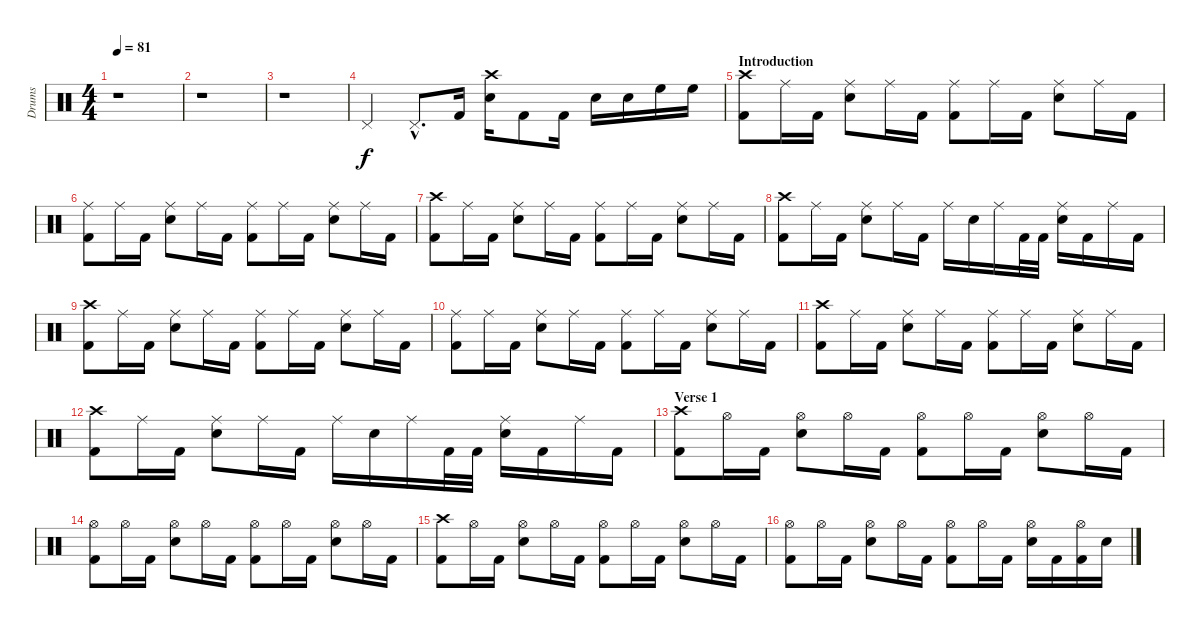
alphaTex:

\track ("Drums" "Drums") {instrument percussion}
\staff {score}
\articulation defaults
\ts (4 4)
\tempo 81
\clef neutral
\ks c
r.1{dy f} |
r.1 |
r.1 |
"Pedal Hi-Hat (hit)".4 "Pedal Hi-Hat (hit)"{hac}.8{d} "Kick (hit) 2".16 ("Crash high (hit)" "Snare (hit) 2").16 "Kick (hit) 2".8 "Kick (hit) 2".16 "Snare (hit) 2".16 "Snare (hit) 2".16 "High Floor Tom (hit)".16 "High Floor Tom (hit)".16 |
\section ("" "Introduction")
("Crash high (hit)" "Kick (hit) 2").8 "Ride (middle)".16 "Kick (hit) 2".16 ("Ride (middle)" "Snare (hit) 2").8 "Ride (middle)".16 "Kick (hit) 2".16 ("Ride (middle)" "Kick (hit) 2").8 "Ride (middle)".16 "Kick (hit) 2".16 ("Ride (middle)" "Snare (hit) 2").8 "Ride (middle)".16 "Kick (hit) 2".16 |
("Ride (middle)" "Kick (hit) 2").8 "Ride (middle)".16 "Kick (hit) 2".16 ("Ride (middle)" "Snare (hit) 2").8 "Ride (middle)".16 "Kick (hit) 2".16 ("Ride (middle)" "Kick (hit) 2").8 "Ride (middle)".16 "Kick (hit) 2".16 ("Ride (middle)" "Snare (hit) 2").8 "Ride (middle)".16 "Kick (hit) 2".16 |
("Crash high (hit)" "Kick (hit) 2").8 "Ride (middle)".16 "Kick (hit) 2".16 ("Ride (middle)" "Snare (hit) 2").8 "Ride (middle)".16 "Kick (hit) 2".16 ("Ride (middle)" "Kick (hit) 2").8 "Ride (middle)".16 "Kick (hit) 2".16 ("Ride (middle)" "Snare (hit) 2").8 "Ride (middle)".16 "Kick (hit) 2".16 |
("Crash high (hit)" "Kick (hit) 2").8 "Ride (middle)".16 "Kick (hit) 2".16 ("Ride (middle)" "Snare (hit) 2").8 "Ride (middle)".16 "Kick (hit) 2".16 "Ride (middle)".16 "Snare (hit) 2".16 "Ride (middle)".16 "Kick (hit) 2".32 "Kick (hit) 2".32 ("Ride (middle)" "Snare (hit) 2").16 "Kick (hit) 2".16 "Ride (middle)".16 "Kick (hit) 2".16 |
("Crash high (hit)" "Kick (hit) 2").8 "Ride (middle)".16 "Kick (hit) 2".16 ("Ride (middle)" "Snare (hit) 2").8 "Ride (middle)".16 "Kick (hit) 2".16 ("Ride (middle)" "Kick (hit) 2").8 "Ride (middle)".16 "Kick (hit) 2".16 ("Ride (middle)" "Snare (hit) 2").8 "Ride (middle)".16 "Kick (hit) 2".16 |
("Ride (middle)" "Kick (hit) 2").8 "Ride (middle)".16 "Kick (hit) 2".16 ("Ride (middle)" "Snare (hit) 2").8 "Ride (middle)".16 "Kick (hit) 2".16 ("Ride (middle)" "Kick (hit) 2").8 "Ride (middle)".16 "Kick (hit) 2".16 ("Ride (middle)" "Snare (hit) 2").8 "Ride (middle)".16 "Kick (hit) 2".16 |
("Crash high (hit)" "Kick (hit) 2").8 "Ride (middle)".16 "Kick (hit) 2".16 ("Ride (middle)" "Snare (hit) 2").8 "Ride (middle)".16 "Kick (hit) 2".16 ("Ride (middle)" "Kick (hit) 2").8 "Ride (middle)".16 "Kick (hit) 2".16 ("Ride (middle)" "Snare (hit) 2").8 "Ride (middle)".16 "Kick (hit) 2".16 |
("Crash high (hit)" "Kick (hit) 2").8 "Ride (middle)".16 "Kick (hit) 2".16 ("Ride (middle)" "Snare (hit) 2").8 "Ride (middle)".16 "Kick (hit) 2".16 "Ride (middle)".16 "Snare (hit) 2".16 "Ride (middle)".16 "Kick (hit) 2".32 "Kick (hit) 2".32 ("Ride (middle)" "Snare (hit) 2").16 "Kick (hit) 2".16 "Ride (middle)".16 "Kick (hit) 2".16 |
\section ("" "Verse 1")
("Crash high (hit)" "Kick (hit) 2").8 "Hi-Hat (open)".16 "Kick (hit) 2".16 ("Hi-Hat (open)" "Snare (hit) 2").8 "Hi-Hat (open)".16 "Kick (hit) 2".16 ("Hi-Hat (open)" "Kick (hit) 2").8 "Hi-Hat (open)".16 "Kick (hit) 2".16 ("Hi-Hat (open)" "Snare (hit) 2").8 "Hi-Hat (open)".16 "Kick (hit) 2".16 |
("Hi-Hat (open)" "Kick (hit) 2").8 "Hi-Hat (open)".16 "Kick (hit) 2".16 ("Hi-Hat (open)" "Snare (hit) 2").8 "Hi-Hat (open)".16 "Kick (hit) 2".16 ("Hi-Hat (open)" "Kick (hit) 2").8 "Hi-Hat (open)".16 "Kick (hit) 2".16 ("Hi-Hat (open)" "Snare (hit) 2").8 "Hi-Hat (open)".16 "Kick (hit) 2".16 |
("Crash high (hit)" "Kick (hit) 2").8 "Hi-Hat (open)".16 "Kick (hit) 2".16 ("Hi-Hat (open)" "Snare (hit) 2").8 "Hi-Hat (open)".16 "Kick (hit) 2".16 ("Hi-Hat (open)" "Kick (hit) 2").8 "Hi-Hat (open)".16 "Kick (hit) 2".16 ("Hi-Hat (open)" "Snare (hit) 2").8 "Hi-Hat (open)".16 "Kick (hit) 2".16 |
("Hi-Hat (open)" "Kick (hit) 2").8 "Hi-Hat (open)".16 "Kick (hit) 2".16 ("Hi-Hat (open)" "Snare (hit) 2").8 "Hi-Hat (open)".16 "Kick (hit) 2".16 ("Hi-Hat (open)" "Kick (hit) 2").8 "Hi-Hat (open)".16 "Kick (hit) 2".16 ("Hi-Hat (open)" "Snare (hit) 2").16 "Kick (hit) 2".16 ("Hi-Hat (open)" "Kick (hit) 2").16 "Snare (hit) 2".16
